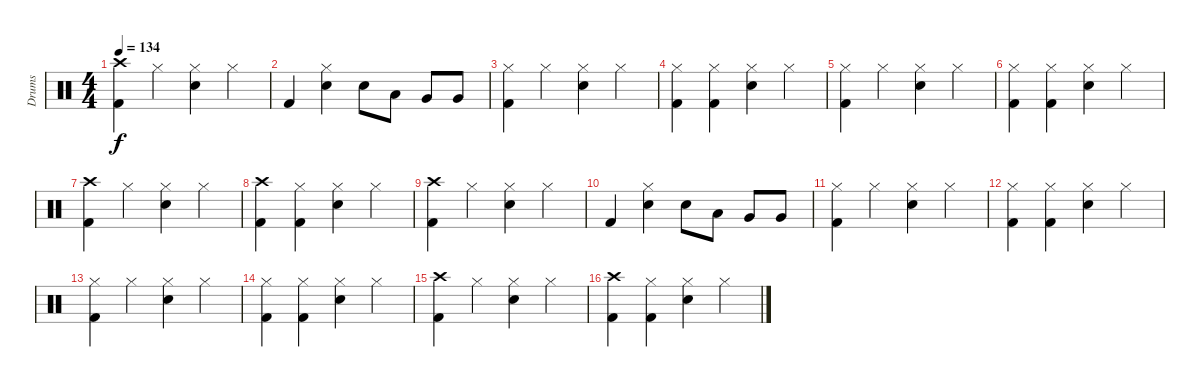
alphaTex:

\track ("Drums" "Drums") {instrument percussion}
\staff {score}
\articulation defaults
\ts (4 4)
\tempo 134
\clef neutral
\ks c
("Crash high (hit)" "Kick (hit) 2").4{dy f} "Hi-Hat (closed)".4 ("Hi-Hat (closed)" "Electric Snare (hit)").4 "Hi-Hat (closed)".4 |
"Kick (hit) 2".4 ("Hi-Hat (closed)" "Electric Snare (hit)").4 "Electric Snare (hit)".8 "Low Tom (hit)".8 "Very Low Tom (hit)".8 "Very Low Tom (hit)".8 |
("Hi-Hat (closed)" "Kick (hit) 2").4 "Hi-Hat (closed)".4 ("Hi-Hat (closed)" "Electric Snare (hit)").4 "Hi-Hat (closed)".4 |
("Hi-Hat (closed)" "Kick (hit) 2").4 ("Hi-Hat (closed)" "Kick (hit) 2").4 ("Hi-Hat (closed)" "Electric Snare (hit)").4 "Hi-Hat (closed)".4 |
("Hi-Hat (closed)" "Kick (hit) 2").4 "Hi-Hat (closed)".4 ("Hi-Hat (closed)" "Electric Snare (hit)").4 "Hi-Hat (closed)".4 |
("Hi-Hat (closed)" "Kick (hit) 2").4 ("Hi-Hat (closed)" "Kick (hit) 2").4 ("Hi-Hat (closed)" "Electric Snare (hit)").4 "Hi-Hat (closed)".4 |
("Crash high (hit)" "Kick (hit) 2").4 "Hi-Hat (closed)".4 ("Hi-Hat (closed)" "Electric Snare (hit)").4 "Hi-Hat (closed)".4 |
("Crash high (hit)" "Kick (hit) 2").4 ("Hi-Hat (closed)" "Kick (hit) 2").4 ("Hi-Hat (closed)" "Electric Snare (hit)").4 "Hi-Hat (closed)".4 |
("Crash high (hit)" "Kick (hit) 2").4 "Hi-Hat (closed)".4 ("Hi-Hat (closed)" "Electric Snare (hit)").4 "Hi-Hat (closed)".4 |
"Kick (hit) 2".4 ("Hi-Hat (closed)" "Electric Snare (hit)").4 "Electric Snare (hit)".8 "Low Tom (hit)".8 "Very Low Tom (hit)".8 "Very Low Tom (hit)".8 |
("Hi-Hat (closed)" "Kick (hit) 2").4 "Hi-Hat (closed)".4 ("Hi-Hat (closed)" "Electric Snare (hit)").4 "Hi-Hat (closed)".4 |
("Hi-Hat (closed)" "Kick (hit) 2").4 ("Hi-Hat (closed)" "Kick (hit) 2").4 ("Hi-Hat (closed)" "Electric Snare (hit)").4 "Hi-Hat (closed)".4 |
("Hi-Hat (closed)" "Kick (hit) 2").4 "Hi-Hat (closed)".4 ("Hi-Hat (closed)" "Electric Snare (hit)").4 "Hi-Hat (closed)".4 |
("Hi-Hat (closed)" "Kick (hit) 2").4 ("Hi-Hat (closed)" "Kick (hit) 2").4 ("Hi-Hat (closed)" "Electric Snare (hit)").4 "Hi-Hat (closed)".4 |
("Crash high (hit)" "Kick (hit) 2").4 "Hi-Hat (closed)".4 ("Hi-Hat (closed)" "Electric Snare (hit)").4 "Hi-Hat (closed)".4 |
("Crash high (hit)" "Kick (hit) 2").4 ("Hi-Hat (closed)" "Kick (hit) 2").4 ("Hi-Hat (closed)" "Electric Snare (hit)").4 "Hi-Hat (closed)".4
